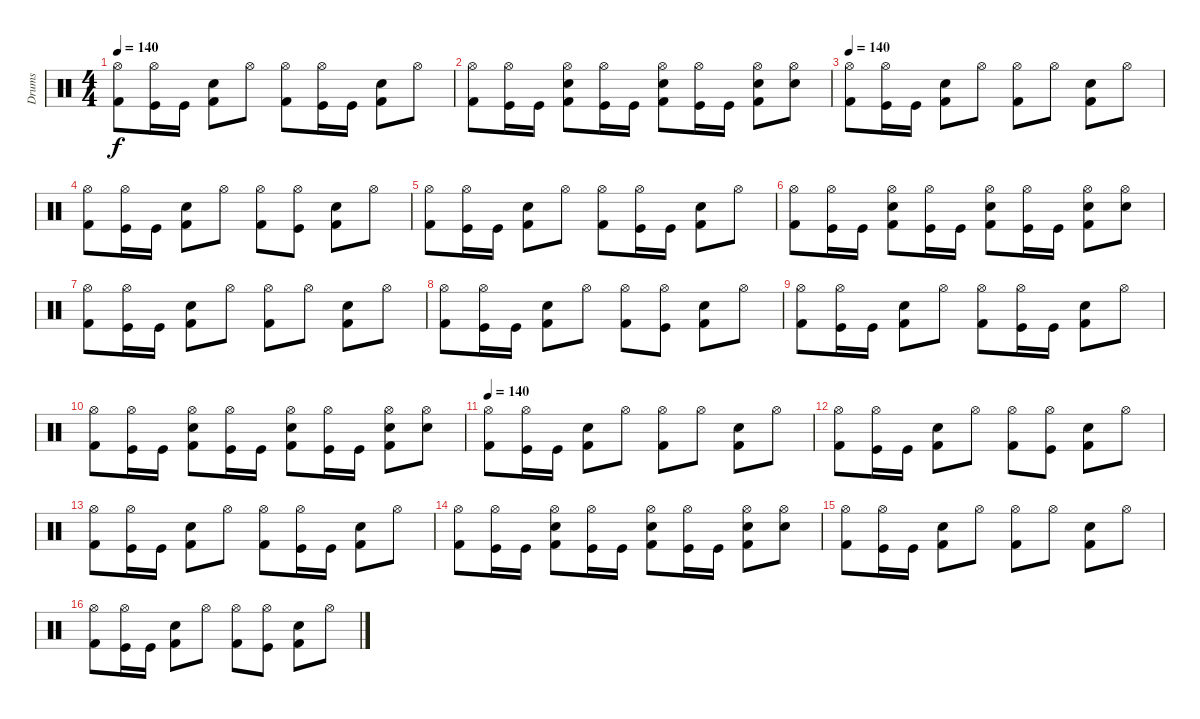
\track ("Drums" "Drums") {instrument percussion}
\staff {score}
\articulation defaults
\ts (4 4)
\tempo 140
\clef neutral
\ks c
("Hi-Hat (open)" "Kick (hit) 2").8{dy f} ("Hi-Hat (open)" "Kick (hit)").16 "Kick (hit)".16 ("Electric Snare (hit)" "Kick (hit) 2").8 "Hi-Hat (open)".8 ("Hi-Hat (open)" "Kick (hit) 2").8 ("Hi-Hat (open)" "Kick (hit)").16 "Kick (hit)".16 ("Electric Snare (hit)" "Kick (hit) 2").8 "Hi-Hat (open)".8 |
("Hi-Hat (open)" "Kick (hit) 2").8 ("Hi-Hat (open)" "Kick (hit)").16 "Kick (hit)".16 ("Electric Snare (hit)" "Hi-Hat (open)" "Kick (hit) 2").8 ("Hi-Hat (open)" "Kick (hit)").16 "Kick (hit)".16 ("Electric Snare (hit)" "Hi-Hat (open)" "Kick (hit) 2").8 ("Hi-Hat (open)" "Kick (hit)").16 "Kick (hit)".16 ("Electric Snare (hit)" "Hi-Hat (open)" "Kick (hit) 2").8 ("Electric Snare (hit)" "Hi-Hat (open)").8 |
\tempo 140
("Hi-Hat (open)" "Kick (hit) 2").8 ("Hi-Hat (open)" "Kick (hit)").16 "Kick (hit)".16 ("Electric Snare (hit)" "Kick (hit) 2").8 "Hi-Hat (open)".8 ("Hi-Hat (open)" "Kick (hit) 2").8 "Hi-Hat (open)".8 ("Electric Snare (hit)" "Kick (hit) 2").8 "Hi-Hat (open)".8 |
("Hi-Hat (open)" "Kick (hit) 2").8 ("Hi-Hat (open)" "Kick (hit)").16 "Kick (hit)".16 ("Electric Snare (hit)" "Kick (hit) 2").8 "Hi-Hat (open)".8 ("Hi-Hat (open)" "Kick (hit) 2").8 ("Hi-Hat (open)" "Kick (hit)").8 ("Electric Snare (hit)" "Kick (hit) 2").8 "Hi-Hat (open)".8 |
("Hi-Hat (open)" "Kick (hit) 2").8 ("Hi-Hat (open)" "Kick (hit)").16 "Kick (hit)".16 ("Electric Snare (hit)" "Kick (hit) 2").8 "Hi-Hat (open)".8 ("Hi-Hat (open)" "Kick (hit) 2").8 ("Hi-Hat (open)" "Kick (hit)").16 "Kick (hit)".16 ("Electric Snare (hit)" "Kick (hit) 2").8 "Hi-Hat (open)".8 |
("Hi-Hat (open)" "Kick (hit) 2").8 ("Hi-Hat (open)" "Kick (hit)").16 "Kick (hit)".16 ("Electric Snare (hit)" "Hi-Hat (open)" "Kick (hit) 2").8 ("Hi-Hat (open)" "Kick (hit)").16 "Kick (hit)".16 ("Electric Snare (hit)" "Hi-Hat (open)" "Kick (hit) 2").8 ("Hi-Hat (open)" "Kick (hit)").16 "Kick (hit)".16 ("Electric Snare (hit)" "Hi-Hat (open)" "Kick (hit) 2").8 ("Electric Snare (hit)" "Hi-Hat (open)").8 |
("Hi-Hat (open)" "Kick (hit) 2").8 ("Hi-Hat (open)" "Kick (hit)").16 "Kick (hit)".16 ("Electric Snare (hit)" "Kick (hit) 2").8 "Hi-Hat (open)".8 ("Hi-Hat (open)" "Kick (hit) 2").8 "Hi-Hat (open)".8 ("Electric Snare (hit)" "Kick (hit) 2").8 "Hi-Hat (open)".8 |
("Hi-Hat (open)" "Kick (hit) 2").8 ("Hi-Hat (open)" "Kick (hit)").16 "Kick (hit)".16 ("Electric Snare (hit)" "Kick (hit) 2").8 "Hi-Hat (open)".8 ("Hi-Hat (open)" "Kick (hit) 2").8 ("Hi-Hat (open)" "Kick (hit)").8 ("Electric Snare (hit)" "Kick (hit) 2").8 "Hi-Hat (open)".8 |
("Hi-Hat (open)" "Kick (hit) 2").8 ("Hi-Hat (open)" "Kick (hit)").16 "Kick (hit)".16 ("Electric Snare (hit)" "Kick (hit) 2").8 "Hi-Hat (open)".8 ("Hi-Hat (open)" "Kick (hit) 2").8 ("Hi-Hat (open)" "Kick (hit)").16 "Kick (hit)".16 ("Electric Snare (hit)" "Kick (hit) 2").8 "Hi-Hat (open)".8 |
("Hi-Hat (open)" "Kick (hit) 2").8{volume 8} ("Hi-Hat (open)" "Kick (hit)").16 "Kick (hit)".16 ("Electric Snare (hit)" "Hi-Hat (open)" "Kick (hit) 2").8 ("Hi-Hat (open)" "Kick (hit)").16 "Kick (hit)".16 ("Electric Snare (hit)" "Hi-Hat (open)" "Kick (hit) 2").8 ("Hi-Hat (open)" "Kick (hit)").16 "Kick (hit)".16 ("Electric Snare (hit)" "Hi-Hat (open)" "Kick (hit) 2").8 ("Electric Snare (hit)" "Hi-Hat (open)").8 |
\tempo 140
("Hi-Hat (open)" "Kick (hit) 2").8 ("Hi-Hat (open)" "Kick (hit)").16 "Kick (hit)".16 ("Electric Snare (hit)" "Kick (hit) 2").8 "Hi-Hat (open)".8 ("Hi-Hat (open)" "Kick (hit) 2").8 "Hi-Hat (open)".8 ("Electric Snare (hit)" "Kick (hit) 2").8 "Hi-Hat (open)".8 |
("Hi-Hat (open)" "Kick (hit) 2").8{volume 0} ("Hi-Hat (open)" "Kick (hit)").16 "Kick (hit)".16 ("Electric Snare (hit)" "Kick (hit) 2").8 "Hi-Hat (open)".8 ("Hi-Hat (open)" "Kick (hit) 2").8 ("Hi-Hat (open)" "Kick (hit)").8 ("Electric Snare (hit)" "Kick (hit) 2").8 "Hi-Hat (open)".8 |
("Hi-Hat (open)" "Kick (hit) 2").8 ("Hi-Hat (open)" "Kick (hit)").16 "Kick (hit)".16 ("Electric Snare (hit)" "Kick (hit) 2").8 "Hi-Hat (open)".8 ("Hi-Hat (open)" "Kick (hit) 2").8 ("Hi-Hat (open)" "Kick (hit)").16 "Kick (hit)".16 ("Electric Snare (hit)" "Kick (hit) 2").8 "Hi-Hat (open)".8 |
("Hi-Hat (open)" "Kick (hit) 2").8 ("Hi-Hat (open)" "Kick (hit)").16 "Kick (hit)".16 ("Electric Snare (hit)" "Hi-Hat (open)" "Kick (hit) 2").8 ("Hi-Hat (open)" "Kick (hit)").16 "Kick (hit)".16 ("Electric Snare (hit)" "Hi-Hat (open)" "Kick (hit) 2").8 ("Hi-Hat (open)" "Kick (hit)").16 "Kick (hit)".16 ("Electric Snare (hit)" "Hi-Hat (open)" "Kick (hit) 2").8 ("Electric Snare (hit)" "Hi-Hat (open)").8 |
("Hi-Hat (open)" "Kick (hit) 2").8 ("Hi-Hat (open)" "Kick (hit)").16 "Kick (hit)".16 ("Electric Snare (hit)" "Kick (hit) 2").8 "Hi-Hat (open)".8 ("Hi-Hat (open)" "Kick (hit) 2").8 "Hi-Hat (open)".8 ("Electric Snare (hit)" "Kick (hit) 2").8 "Hi-Hat (open)".8 |
("Hi-Hat (open)" "Kick (hit) 2").8 ("Hi-Hat (open)" "Kick (hit)").16 "Kick (hit)".16 ("Electric Snare (hit)" "Kick (hit) 2").8 "Hi-Hat (open)".8 ("Hi-Hat (open)" "Kick (hit) 2").8 ("Hi-Hat (open)" "Kick (hit)").8 ("Electric Snare (hit)" "Kick (hit) 2").8 "Hi-Hat (open)".8
